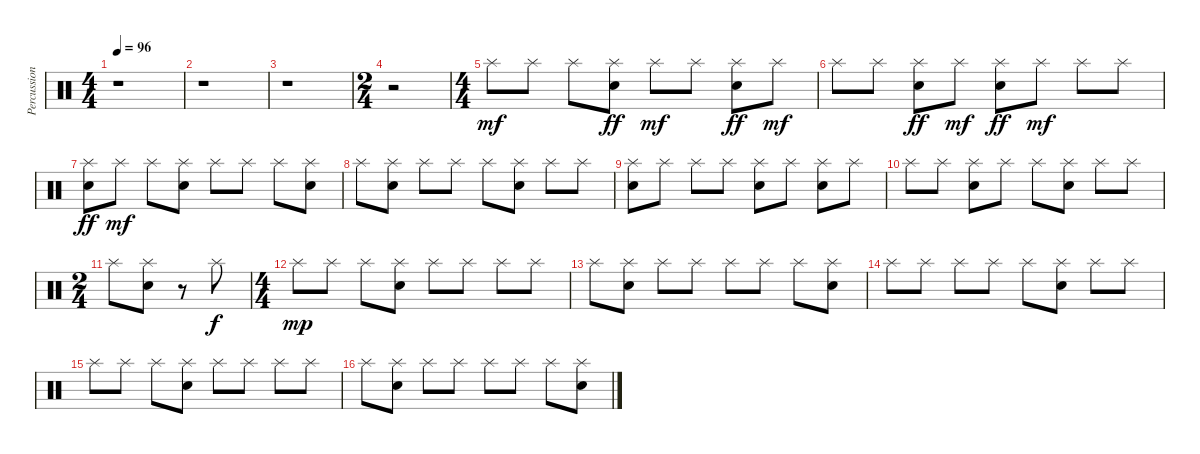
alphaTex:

\track ("Percussions" "Percussion") {instrument percussion}
\staff {score}
\articulation defaults
\ts (4 4)
\tempo 96
\clef neutral
\ks c
r.1{dy mf} |
r.1 |
r.1 |
\ts (2 4)
r.2 |
\ts (4 4)
"Splash (hit)".8 "Splash (hit)".8 "Splash (hit)".8 ("Splash (hit)" "Electric Snare (hit)").8{dy ff} "Splash (hit)".8{dy mf} "Splash (hit)".8 ("Splash (hit)" "Electric Snare (hit)").8{dy ff} "Splash (hit)".8{dy mf} |
"Splash (hit)".8 "Splash (hit)".8 ("Splash (hit)" "Electric Snare (hit)").8{dy ff} "Splash (hit)".8{dy mf} ("Splash (hit)" "Electric Snare (hit)").8{dy ff} "Splash (hit)".8{dy mf} "Splash (hit)".8 "Splash (hit)".8 |
("Splash (hit)" "Electric Snare (hit)").8{dy ff} "Splash (hit)".8{dy mf} "Splash (hit)".8 ("Splash (hit)" "Electric Snare (hit)").8 "Splash (hit)".8 "Splash (hit)".8 "Splash (hit)".8 ("Splash (hit)" "Electric Snare (hit)").8 |
"Splash (hit)".8 ("Splash (hit)" "Electric Snare (hit)").8 "Splash (hit)".8 "Splash (hit)".8 "Splash (hit)".8 ("Splash (hit)" "Electric Snare (hit)").8 "Splash (hit)".8 "Splash (hit)".8 |
("Splash (hit)" "Electric Snare (hit)").8 "Splash (hit)".8 "Splash (hit)".8 "Splash (hit)".8 ("Splash (hit)" "Electric Snare (hit)").8 "Splash (hit)".8 ("Splash (hit)" "Electric Snare (hit)").8 "Splash (hit)".8 |
"Splash (hit)".8 "Splash (hit)".8 ("Splash (hit)" "Electric Snare (hit)").8 "Splash (hit)".8 "Splash (hit)".8 ("Splash (hit)" "Electric Snare (hit)").8 "Splash (hit)".8 "Splash (hit)".8 |
\ts (2 4)
"Splash (hit)".8 ("Splash (hit)" "Electric Snare (hit)").8 r.8 "Splash (hit)".8{dy f} |
\ts (4 4)
"Splash (hit)".8{dy mp} "Splash (hit)".8 "Splash (hit)".8 ("Splash (hit)" "Electric Snare (hit)").8 "Splash (hit)".8 "Splash (hit)".8 "Splash (hit)".8 "Splash (hit)".8 |
"Splash (hit)".8 ("Splash (hit)" "Electric Snare (hit)").8 "Splash (hit)".8 "Splash (hit)".8 "Splash (hit)".8 "Splash (hit)".8 "Splash (hit)".8 ("Splash (hit)" "Electric Snare (hit)").8 |
"Splash (hit)".8 "Splash (hit)".8 "Splash (hit)".8 "Splash (hit)".8 "Splash (hit)".8 ("Splash (hit)" "Electric Snare (hit)").8 "Splash (hit)".8 "Splash (hit)".8 |
"Splash (hit)".8 "Splash (hit)".8 "Splash (hit)".8 ("Splash (hit)" "Electric Snare (hit)").8 "Splash (hit)".8 "Splash (hit)".8 "Splash (hit)".8 "Splash (hit)".8 |
"Splash (hit)".8 ("Splash (hit)" "Electric Snare (hit)").8 "Splash (hit)".8 "Splash (hit)".8 "Splash (hit)".8 "Splash (hit)".8 "Splash (hit)".8 ("Splash (hit)" "Electric Snare (hit)").8
